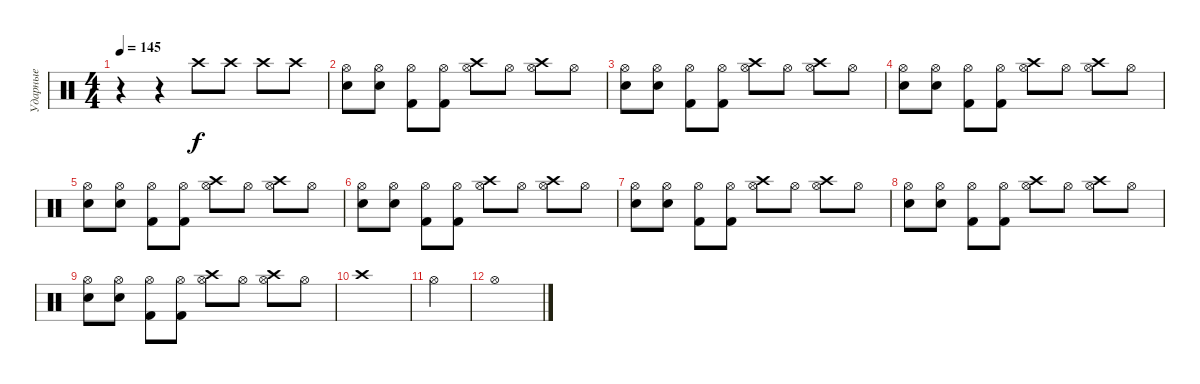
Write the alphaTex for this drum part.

\track ("Ударные" "Ударные") {instrument percussion}
\staff {score}
\articulation defaults
\ts (4 4)
\tempo 145
\clef neutral
\ks c
r.4{dy f} r.4 "Crash high (hit)".8 "Crash high (hit)".8 "Crash high (hit)".8 "Crash high (hit)".8 |
("Hi-Hat (open)" "Electric Snare (hit)").8 ("Hi-Hat (open)" "Electric Snare (hit)").8 ("Hi-Hat (open)" "Kick (hit) 2").8 ("Hi-Hat (open)" "Kick (hit) 2").8 ("Hi-Hat (open)" "Crash high (hit)").8 "Hi-Hat (open)".8 ("Hi-Hat (open)" "Crash high (hit)").8 "Hi-Hat (open)".8 |
("Hi-Hat (open)" "Electric Snare (hit)").8 ("Hi-Hat (open)" "Electric Snare (hit)").8 ("Hi-Hat (open)" "Kick (hit) 2").8 ("Hi-Hat (open)" "Kick (hit) 2").8 ("Hi-Hat (open)" "Crash high (hit)").8 "Hi-Hat (open)".8 ("Hi-Hat (open)" "Crash high (hit)").8 "Hi-Hat (open)".8 |
("Hi-Hat (open)" "Electric Snare (hit)").8 ("Hi-Hat (open)" "Electric Snare (hit)").8 ("Hi-Hat (open)" "Kick (hit) 2").8 ("Hi-Hat (open)" "Kick (hit) 2").8 ("Hi-Hat (open)" "Crash high (hit)").8 "Hi-Hat (open)".8 ("Hi-Hat (open)" "Crash high (hit)").8 "Hi-Hat (open)".8 |
("Hi-Hat (open)" "Electric Snare (hit)").8 ("Hi-Hat (open)" "Electric Snare (hit)").8 ("Hi-Hat (open)" "Kick (hit) 2").8 ("Hi-Hat (open)" "Kick (hit) 2").8 ("Hi-Hat (open)" "Crash high (hit)").8 "Hi-Hat (open)".8 ("Hi-Hat (open)" "Crash high (hit)").8 "Hi-Hat (open)".8 |
("Hi-Hat (open)" "Electric Snare (hit)").8 ("Hi-Hat (open)" "Electric Snare (hit)").8 ("Hi-Hat (open)" "Kick (hit) 2").8 ("Hi-Hat (open)" "Kick (hit) 2").8 ("Hi-Hat (open)" "Crash high (hit)").8 "Hi-Hat (open)".8 ("Hi-Hat (open)" "Crash high (hit)").8 "Hi-Hat (open)".8 |
("Hi-Hat (open)" "Electric Snare (hit)").8 ("Hi-Hat (open)" "Electric Snare (hit)").8 ("Hi-Hat (open)" "Kick (hit) 2").8 ("Hi-Hat (open)" "Kick (hit) 2").8 ("Hi-Hat (open)" "Crash high (hit)").8 "Hi-Hat (open)".8 ("Hi-Hat (open)" "Crash high (hit)").8 "Hi-Hat (open)".8 |
("Hi-Hat (open)" "Electric Snare (hit)").8 ("Hi-Hat (open)" "Electric Snare (hit)").8 ("Hi-Hat (open)" "Kick (hit) 2").8 ("Hi-Hat (open)" "Kick (hit) 2").8 ("Hi-Hat (open)" "Crash high (hit)").8 "Hi-Hat (open)".8 ("Hi-Hat (open)" "Crash high (hit)").8 "Hi-Hat (open)".8 |
("Hi-Hat (open)" "Electric Snare (hit)").8 ("Hi-Hat (open)" "Electric Snare (hit)").8 ("Hi-Hat (open)" "Kick (hit) 2").8 ("Hi-Hat (open)" "Kick (hit) 2").8 ("Hi-Hat (open)" "Crash high (hit)").8 "Hi-Hat (open)".8 ("Hi-Hat (open)" "Crash high (hit)").8 "Hi-Hat (open)".8 |
"Crash high (hit)".1 |
"Hi-Hat (open)".4 |
"Hi-Hat (open)".1
